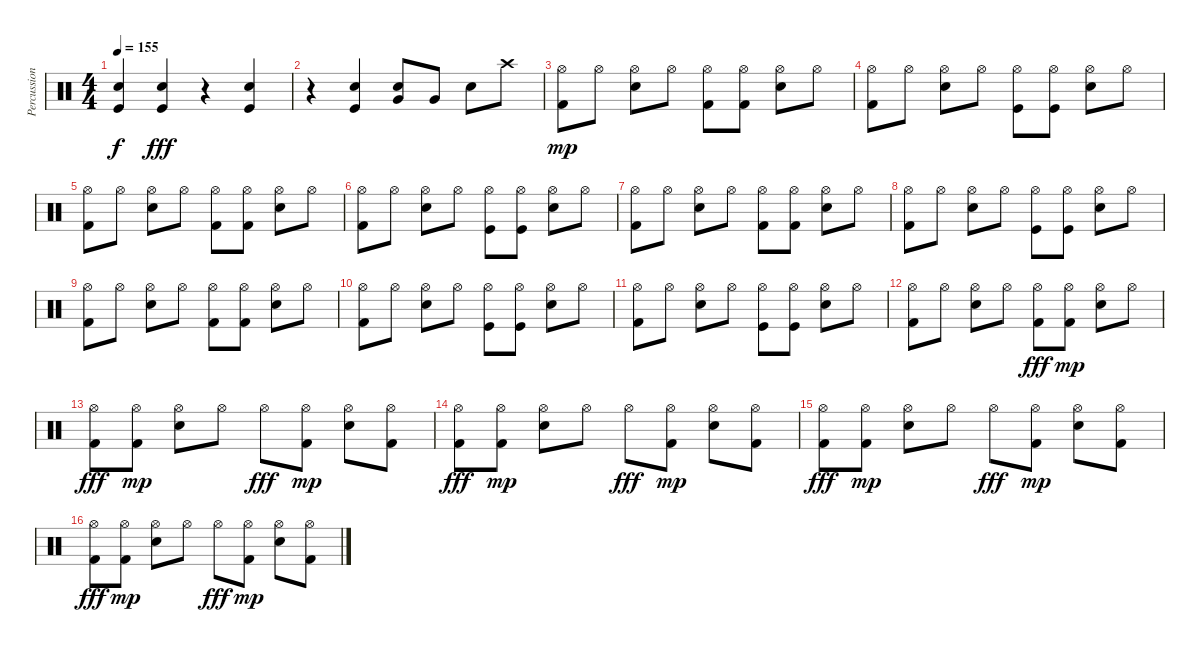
\track ("Percussion" "Percussion") {instrument percussion}
\staff {score}
\articulation defaults
\ts (4 4)
\tempo 155
\clef neutral
\ks c
("Snare (hit) 2" "Kick (hit)").4{dy f} ("Snare (hit) 2" "Kick (hit)").4{dy fff} r.4 ("Snare (hit) 2" "Kick (hit)").4 |
r.4 ("Snare (hit) 2" "Kick (hit)").4 ("Snare (hit) 2" "Very Low Tom (hit)").8 "Very Low Tom (hit)".8 "Snare (hit) 2".8 "Crash high (hit)".8 |
("Kick (hit) 2" "Hi-Hat (open)").8{dy mp} "Hi-Hat (open)".8 ("Snare (hit) 2" "Hi-Hat (open)").8 "Hi-Hat (open)".8 ("Kick (hit) 2" "Hi-Hat (open)").8 ("Kick (hit) 2" "Hi-Hat (open)").8 ("Snare (hit) 2" "Hi-Hat (open)").8 "Hi-Hat (open)".8 |
("Kick (hit) 2" "Hi-Hat (open)").8 "Hi-Hat (open)".8 ("Snare (hit) 2" "Hi-Hat (open)").8 "Hi-Hat (open)".8 ("Kick (hit)" "Hi-Hat (open)").8 ("Kick (hit)" "Hi-Hat (open)").8 ("Snare (hit) 2" "Hi-Hat (open)").8 "Hi-Hat (open)".8 |
("Kick (hit) 2" "Hi-Hat (open)").8 "Hi-Hat (open)".8 ("Snare (hit) 2" "Hi-Hat (open)").8 "Hi-Hat (open)".8 ("Kick (hit) 2" "Hi-Hat (open)").8 ("Kick (hit) 2" "Hi-Hat (open)").8 ("Snare (hit) 2" "Hi-Hat (open)").8 "Hi-Hat (open)".8 |
("Kick (hit) 2" "Hi-Hat (open)").8 "Hi-Hat (open)".8 ("Snare (hit) 2" "Hi-Hat (open)").8 "Hi-Hat (open)".8 ("Kick (hit)" "Hi-Hat (open)").8 ("Kick (hit)" "Hi-Hat (open)").8 ("Snare (hit) 2" "Hi-Hat (open)").8 "Hi-Hat (open)".8 |
("Kick (hit) 2" "Hi-Hat (open)").8 "Hi-Hat (open)".8 ("Snare (hit) 2" "Hi-Hat (open)").8 "Hi-Hat (open)".8 ("Kick (hit) 2" "Hi-Hat (open)").8 ("Kick (hit) 2" "Hi-Hat (open)").8 ("Snare (hit) 2" "Hi-Hat (open)").8 "Hi-Hat (open)".8 |
("Kick (hit) 2" "Hi-Hat (open)").8 "Hi-Hat (open)".8 ("Snare (hit) 2" "Hi-Hat (open)").8 "Hi-Hat (open)".8 ("Kick (hit)" "Hi-Hat (open)").8 ("Kick (hit)" "Hi-Hat (open)").8 ("Snare (hit) 2" "Hi-Hat (open)").8 "Hi-Hat (open)".8 |
("Kick (hit) 2" "Hi-Hat (open)").8 "Hi-Hat (open)".8 ("Snare (hit) 2" "Hi-Hat (open)").8 "Hi-Hat (open)".8 ("Kick (hit) 2" "Hi-Hat (open)").8 ("Kick (hit) 2" "Hi-Hat (open)").8 ("Snare (hit) 2" "Hi-Hat (open)").8 "Hi-Hat (open)".8 |
("Kick (hit) 2" "Hi-Hat (open)").8 "Hi-Hat (open)".8 ("Snare (hit) 2" "Hi-Hat (open)").8 "Hi-Hat (open)".8 ("Kick (hit)" "Hi-Hat (open)").8 ("Kick (hit)" "Hi-Hat (open)").8 ("Snare (hit) 2" "Hi-Hat (open)").8 "Hi-Hat (open)".8 |
("Kick (hit) 2" "Hi-Hat (open)").8 "Hi-Hat (open)".8 ("Snare (hit) 2" "Hi-Hat (open)").8 "Hi-Hat (open)".8 ("Kick (hit)" "Hi-Hat (open)").8 ("Kick (hit)" "Hi-Hat (open)").8 ("Snare (hit) 2" "Hi-Hat (open)").8 "Hi-Hat (open)".8 |
("Kick (hit) 2" "Hi-Hat (open)").8 "Hi-Hat (open)".8 ("Snare (hit) 2" "Hi-Hat (open)").8 "Hi-Hat (open)".8 ("Kick (hit) 2" "Hi-Hat (open)").8{dy fff} ("Kick (hit) 2" "Hi-Hat (open)").8{dy mp} ("Snare (hit) 2" "Hi-Hat (open)").8 "Hi-Hat (open)".8 |
("Kick (hit) 2" "Hi-Hat (open)").8{dy fff} ("Kick (hit) 2" "Hi-Hat (open)").8{dy mp} ("Snare (hit) 2" "Hi-Hat (open)").8 "Hi-Hat (open)".8 "Hi-Hat (open)".8{dy fff} ("Kick (hit) 2" "Hi-Hat (open)").8{dy mp} ("Snare (hit) 2" "Hi-Hat (open)").8 ("Kick (hit) 2" "Hi-Hat (open)").8 |
("Kick (hit) 2" "Hi-Hat (open)").8{dy fff} ("Kick (hit) 2" "Hi-Hat (open)").8{dy mp} ("Snare (hit) 2" "Hi-Hat (open)").8 "Hi-Hat (open)".8 "Hi-Hat (open)".8{dy fff} ("Kick (hit) 2" "Hi-Hat (open)").8{dy mp} ("Snare (hit) 2" "Hi-Hat (open)").8 ("Kick (hit) 2" "Hi-Hat (open)").8 |
("Kick (hit) 2" "Hi-Hat (open)").8{dy fff} ("Kick (hit) 2" "Hi-Hat (open)").8{dy mp} ("Snare (hit) 2" "Hi-Hat (open)").8 "Hi-Hat (open)".8 "Hi-Hat (open)".8{dy fff} ("Kick (hit) 2" "Hi-Hat (open)").8{dy mp} ("Snare (hit) 2" "Hi-Hat (open)").8 ("Kick (hit) 2" "Hi-Hat (open)").8 |
("Kick (hit) 2" "Hi-Hat (open)").8{dy fff} ("Kick (hit) 2" "Hi-Hat (open)").8{dy mp} ("Snare (hit) 2" "Hi-Hat (open)").8 "Hi-Hat (open)".8 "Hi-Hat (open)".8{dy fff} ("Kick (hit) 2" "Hi-Hat (open)").8{dy mp} ("Snare (hit) 2" "Hi-Hat (open)").8 ("Kick (hit) 2" "Hi-Hat (open)").8
